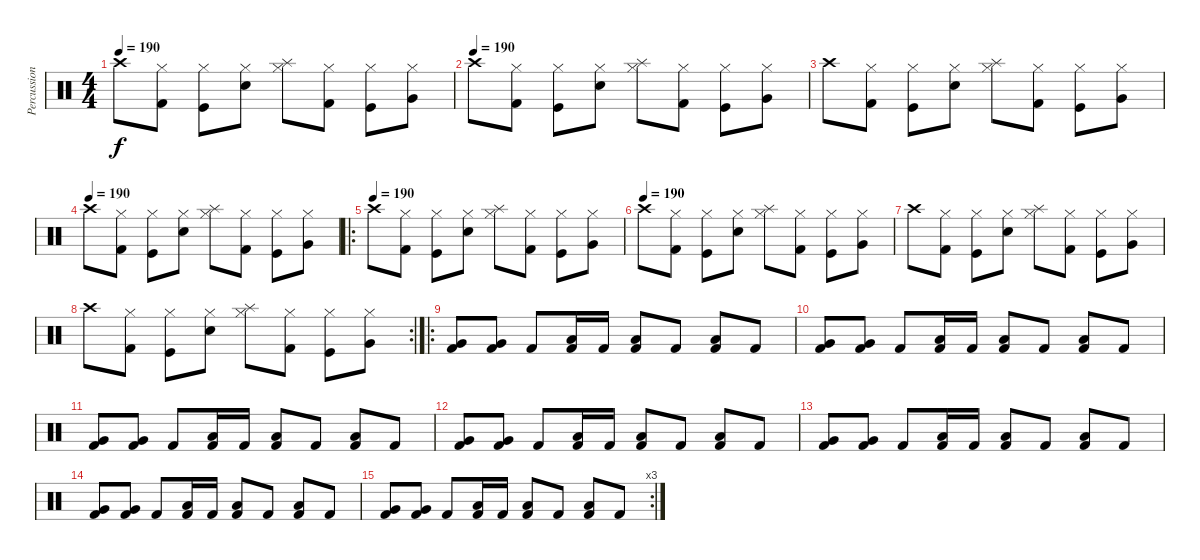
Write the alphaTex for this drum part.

\track ("Percussions" "Percussion") {instrument percussion}
\staff {score}
\articulation defaults
\ts (4 4)
\tempo 190
\clef neutral
\ks c "Crash high (hit)".8{dy f}
("Hi-Hat (closed)" "Kick (hit) 2").8 ("Hi-Hat (closed)" "Kick (hit)").8 ("Hi-Hat (closed)" "Snare (hit) 2").8 ("Hi-Hat (closed)" "Splash (hit)").8 ("Hi-Hat (closed)" "Kick (hit) 2").8 ("Hi-Hat (closed)" "Kick (hit)").8 ("Hi-Hat (closed)" "Very Low Tom (hit)").8 |
\tempo (190)
"Crash high (hit)".8 ("Hi-Hat (closed)" "Kick (hit) 2").8 ("Hi-Hat (closed)" "Kick (hit)").8 ("Hi-Hat (closed)" "Snare (hit) 2").8 ("Hi-Hat (closed)" "Splash (hit)").8 ("Hi-Hat (closed)" "Kick (hit) 2").8 ("Hi-Hat (closed)" "Kick (hit)").8 ("Hi-Hat (closed)" "Very Low Tom (hit)").8 |
"Crash high (hit)".8 ("Hi-Hat (closed)" "Kick (hit) 2").8 ("Hi-Hat (closed)" "Kick (hit)").8 ("Hi-Hat (closed)" "Snare (hit) 2").8 ("Hi-Hat (closed)" "Splash (hit)").8 ("Hi-Hat (closed)" "Kick (hit) 2").8 ("Hi-Hat (closed)" "Kick (hit)").8 ("Hi-Hat (closed)" "Very Low Tom (hit)").8 |
\tempo (190)
"Crash high (hit)".8 ("Hi-Hat (closed)" "Kick (hit) 2").8 ("Hi-Hat (closed)" "Kick (hit)").8 ("Hi-Hat (closed)" "Snare (hit) 2").8 ("Hi-Hat (closed)" "Splash (hit)").8 ("Hi-Hat (closed)" "Kick (hit) 2").8 ("Hi-Hat (closed)" "Kick (hit)").8 ("Hi-Hat (closed)" "Very Low Tom (hit)").8 |
\ro
\tempo (190)
"Crash high (hit)".8 ("Hi-Hat (closed)" "Kick (hit) 2").8 ("Hi-Hat (closed)" "Kick (hit)").8 ("Hi-Hat (closed)" "Snare (hit) 2").8 ("Hi-Hat (closed)" "Splash (hit)").8 ("Hi-Hat (closed)" "Kick (hit) 2").8 ("Hi-Hat (closed)" "Kick (hit)").8 ("Hi-Hat (closed)" "Very Low Tom (hit)").8 |
\tempo (190)
"Crash high (hit)".8 ("Hi-Hat (closed)" "Kick (hit) 2").8 ("Hi-Hat (closed)" "Kick (hit)").8 ("Hi-Hat (closed)" "Snare (hit) 2").8 ("Hi-Hat (closed)" "Splash (hit)").8 ("Hi-Hat (closed)" "Kick (hit) 2").8 ("Hi-Hat (closed)" "Kick (hit)").8 ("Hi-Hat (closed)" "Very Low Tom (hit)").8 |
"Crash high (hit)".8 ("Hi-Hat (closed)" "Kick (hit) 2").8 ("Hi-Hat (closed)" "Kick (hit)").8 ("Hi-Hat (closed)" "Snare (hit) 2").8 ("Hi-Hat (closed)" "Splash (hit)").8 ("Hi-Hat (closed)" "Kick (hit) 2").8 ("Hi-Hat (closed)" "Kick (hit)").8 ("Hi-Hat (closed)" "Very Low Tom (hit)").8 |
\rc 2 "Crash high (hit)".8
("Hi-Hat (closed)" "Kick (hit) 2").8 ("Hi-Hat (closed)" "Kick (hit)").8 ("Hi-Hat (closed)" "Snare (hit) 2").8 ("Hi-Hat (closed)" "Splash (hit)").8 ("Hi-Hat (closed)" "Kick (hit) 2").8 ("Hi-Hat (closed)" "Kick (hit)").8 ("Hi-Hat (closed)" "Very Low Tom (hit)").8 |
\ro
("Kick (hit) 2" "Very Low Tom (hit)").8 ("Kick (hit) 2" "Very Low Tom (hit)").8 "Kick (hit) 2".8 ("Low Tom (hit)" "Kick (hit) 2").16 "Kick (hit) 2".16 ("Low Tom (hit)" "Kick (hit) 2").8 "Kick (hit) 2".8 ("Low Tom (hit)" "Kick (hit) 2").8 "Kick (hit) 2".8 |
("Kick (hit) 2" "Very Low Tom (hit)").8 ("Kick (hit) 2" "Very Low Tom (hit)").8 "Kick (hit) 2".8 ("Low Tom (hit)" "Kick (hit) 2").16 "Kick (hit) 2".16 ("Low Tom (hit)" "Kick (hit) 2").8 "Kick (hit) 2".8 ("Low Tom (hit)" "Kick (hit) 2").8 "Kick (hit) 2".8 |
("Kick (hit) 2" "Very Low Tom (hit)").8 ("Kick (hit) 2" "Very Low Tom (hit)").8 "Kick (hit) 2".8 ("Low Tom (hit)" "Kick (hit) 2").16 "Kick (hit) 2".16 ("Low Tom (hit)" "Kick (hit) 2").8 "Kick (hit) 2".8 ("Low Tom (hit)" "Kick (hit) 2").8 "Kick (hit) 2".8 |
("Kick (hit) 2" "Very Low Tom (hit)").8 ("Kick (hit) 2" "Very Low Tom (hit)").8 "Kick (hit) 2".8 ("Low Tom (hit)" "Kick (hit) 2").16 "Kick (hit) 2".16 ("Low Tom (hit)" "Kick (hit) 2").8 "Kick (hit) 2".8 ("Low Tom (hit)" "Kick (hit) 2").8 "Kick (hit) 2".8 |
("Kick (hit) 2" "Very Low Tom (hit)").8 ("Kick (hit) 2" "Very Low Tom (hit)").8 "Kick (hit) 2".8 ("Low Tom (hit)" "Kick (hit) 2").16 "Kick (hit) 2".16 ("Low Tom (hit)" "Kick (hit) 2").8 "Kick (hit) 2".8 ("Low Tom (hit)" "Kick (hit) 2").8 "Kick (hit) 2".8 |
("Kick (hit) 2" "Very Low Tom (hit)").8 ("Kick (hit) 2" "Very Low Tom (hit)").8 "Kick (hit) 2".8 ("Low Tom (hit)" "Kick (hit) 2").16 "Kick (hit) 2".16 ("Low Tom (hit)" "Kick (hit) 2").8 "Kick (hit) 2".8 ("Low Tom (hit)" "Kick (hit) 2").8 "Kick (hit) 2".8 |
\rc 3
("Kick (hit) 2" "Very Low Tom (hit)").8 ("Kick (hit) 2" "Very Low Tom (hit)").8 "Kick (hit) 2".8 ("Low Tom (hit)" "Kick (hit) 2").16 "Kick (hit) 2".16 ("Low Tom (hit)" "Kick (hit) 2").8 "Kick (hit) 2".8 ("Low Tom (hit)" "Kick (hit) 2").8 "Kick (hit) 2".8
